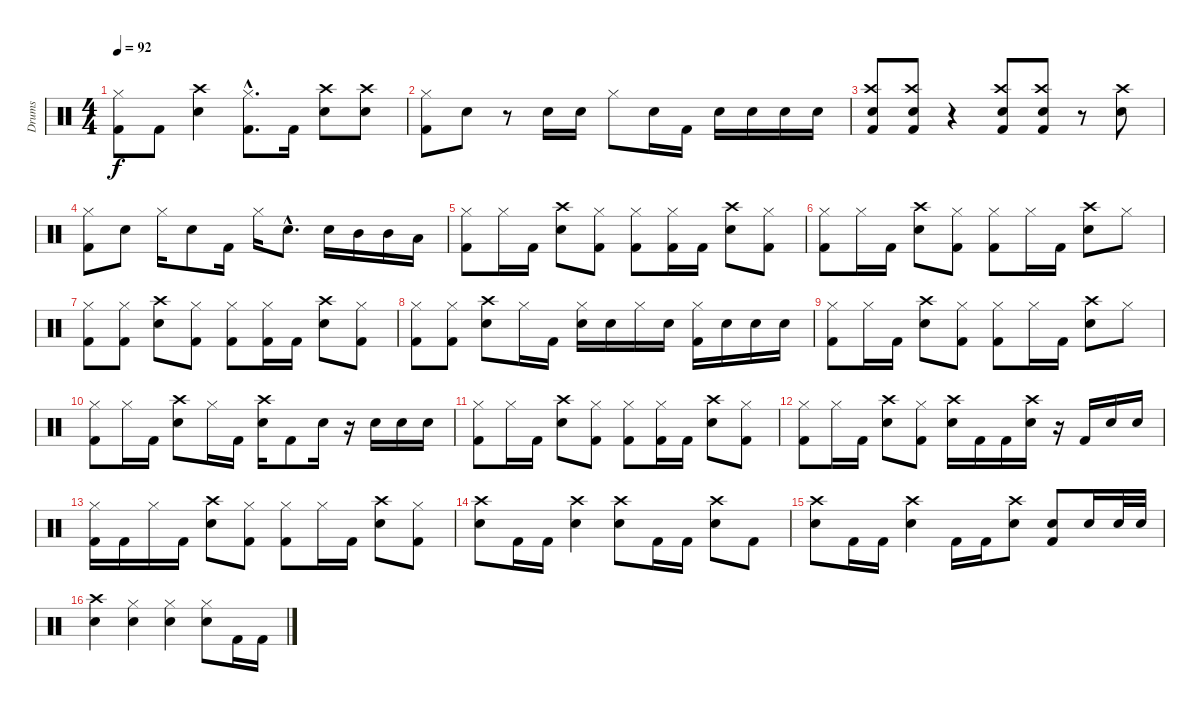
\track ("Drums" "Drums") {instrument percussion}
\staff {score}
\articulation defaults
\ts (4 4)
\tempo 92
\clef neutral
\ks c
("Hi-Hat (closed)" "Kick (hit) 2").8{dy f} "Kick (hit) 2".8 ("Crash high (hit)" "Electric Snare (hit)").4 ("Hi-Hat (closed)"{hac} "Kick (hit) 2"{hac}).8{d} "Kick (hit) 2".16 ("Crash high (hit)" "Electric Snare (hit)").8 ("Crash high (hit)" "Electric Snare (hit)").8 |
("Hi-Hat (closed)" "Kick (hit) 2").8 "Electric Snare (hit)".8 r.8 "Electric Snare (hit)".16 "Electric Snare (hit)".16 "Hi-Hat (closed)".8 "Electric Snare (hit)".16 "Kick (hit) 2".16 "Electric Snare (hit)".16 "Electric Snare (hit)".16 "Electric Snare (hit)".16 "Electric Snare (hit)".16 |
("Crash high (hit)" "Electric Snare (hit)" "Kick (hit) 2").8 ("Crash high (hit)" "Electric Snare (hit)" "Kick (hit) 2").8 r.4 ("Crash high (hit)" "Electric Snare (hit)" "Kick (hit) 2").8 ("Crash high (hit)" "Electric Snare (hit)" "Kick (hit) 2").8 r.8 ("Crash high (hit)" "Electric Snare (hit)").8 |
("Hi-Hat (closed)" "Kick (hit) 2").8 "Electric Snare (hit)".8 "Hi-Hat (closed)".16 "Electric Snare (hit)".8 "Kick (hit) 2".16 "Hi-Hat (closed)".16 "Electric Snare (hit)"{hac}.8{d} "Electric Snare (hit)".16 "Mid Tom (hit)".16 "Mid Tom (hit)".16 "Low Tom (hit)".16 |
("Hi-Hat (closed)" "Kick (hit) 2").8 "Hi-Hat (closed)".16 "Kick (hit) 2".16 ("Crash high (hit)" "Electric Snare (hit)").8 ("Hi-Hat (closed)" "Kick (hit) 2").8 ("Hi-Hat (closed)" "Kick (hit) 2").8 ("Hi-Hat (closed)" "Kick (hit) 2").16 "Kick (hit) 2".16 ("Crash high (hit)" "Electric Snare (hit)").8 ("Hi-Hat (closed)" "Kick (hit) 2").8 |
("Hi-Hat (closed)" "Kick (hit) 2").8 "Hi-Hat (closed)".16 "Kick (hit) 2".16 ("Crash high (hit)" "Electric Snare (hit)").8 ("Hi-Hat (closed)" "Kick (hit) 2").8 ("Hi-Hat (closed)" "Kick (hit) 2").8 "Hi-Hat (closed)".16 "Kick (hit) 2".16 ("Crash high (hit)" "Electric Snare (hit)").8 "Hi-Hat (closed)".8 |
("Hi-Hat (closed)" "Kick (hit) 2").8 ("Hi-Hat (closed)" "Kick (hit) 2").8 ("Crash high (hit)" "Electric Snare (hit)").8 ("Hi-Hat (closed)" "Kick (hit) 2").8 ("Hi-Hat (closed)" "Kick (hit) 2").8 ("Hi-Hat (closed)" "Kick (hit) 2").16 "Kick (hit) 2".16 ("Crash high (hit)" "Electric Snare (hit)").8 ("Hi-Hat (closed)" "Kick (hit) 2").8 |
("Hi-Hat (closed)" "Kick (hit) 2").8 ("Hi-Hat (closed)" "Kick (hit) 2").8 ("Crash high (hit)" "Electric Snare (hit)").8 "Hi-Hat (closed)".16 "Kick (hit) 2".16 ("Hi-Hat (closed)" "Electric Snare (hit)").16 "Electric Snare (hit)".16 "Hi-Hat (closed)".16 "Electric Snare (hit)".16 ("Hi-Hat (closed)" "Kick (hit) 2").16 "Electric Snare (hit)".16 "Electric Snare (hit)".16 "Electric Snare (hit)".16 |
("Hi-Hat (closed)" "Kick (hit) 2").8 "Hi-Hat (closed)".16 "Kick (hit) 2".16 ("Crash high (hit)" "Electric Snare (hit)").8 ("Hi-Hat (closed)" "Kick (hit) 2").8 ("Hi-Hat (closed)" "Kick (hit) 2").8 "Hi-Hat (closed)".16 "Kick (hit) 2".16 ("Crash high (hit)" "Electric Snare (hit)").8 "Hi-Hat (closed)".8 |
("Hi-Hat (closed)" "Kick (hit) 2").8 "Hi-Hat (closed)".16 "Kick (hit) 2".16 ("Crash high (hit)" "Electric Snare (hit)").8 "Hi-Hat (closed)".16 "Kick (hit) 2".16 ("Crash high (hit)" "Electric Snare (hit)").16 "Kick (hit) 2".8 "Electric Snare (hit)".16 r.16 "Electric Snare (hit)".16 "Electric Snare (hit)".16 "Electric Snare (hit)".16 |
("Hi-Hat (closed)" "Kick (hit) 2").8 "Hi-Hat (closed)".16 "Kick (hit) 2".16 ("Crash high (hit)" "Electric Snare (hit)").8 ("Hi-Hat (closed)" "Kick (hit) 2").8 ("Hi-Hat (closed)" "Kick (hit) 2").8 ("Hi-Hat (closed)" "Kick (hit) 2").16 "Kick (hit) 2".16 ("Crash high (hit)" "Electric Snare (hit)").8 ("Hi-Hat (closed)" "Kick (hit) 2").8 |
("Hi-Hat (closed)" "Kick (hit) 2").8 "Hi-Hat (closed)".16 "Kick (hit) 2".16 ("Crash high (hit)" "Electric Snare (hit)").8 ("Hi-Hat (closed)" "Kick (hit) 2").8 ("Crash high (hit)" "Electric Snare (hit)").16 "Kick (hit) 2".16 "Kick (hit) 2".16 ("Crash high (hit)" "Electric Snare (hit)").16 r.16 "Kick (hit) 2".16 "Electric Snare (hit)".16 "Electric Snare (hit)".16 |
("Hi-Hat (closed)" "Kick (hit) 2").16 "Kick (hit) 2".16 "Hi-Hat (closed)".16 "Kick (hit) 2".16 ("Crash high (hit)" "Electric Snare (hit)").8 ("Hi-Hat (closed)" "Kick (hit) 2").8 ("Hi-Hat (closed)" "Kick (hit) 2").8 "Hi-Hat (closed)".16 "Kick (hit) 2".16 ("Crash high (hit)" "Electric Snare (hit)").8 ("Hi-Hat (closed)" "Kick (hit) 2").8 |
("Crash high (hit)" "Electric Snare (hit)").8 "Kick (hit) 2".16 "Kick (hit) 2".16 ("Crash high (hit)" "Electric Snare (hit)").4 ("Crash high (hit)" "Electric Snare (hit)").8 "Kick (hit) 2".16 "Kick (hit) 2".16 ("Crash high (hit)" "Electric Snare (hit)").8 "Kick (hit) 2".8 |
("Crash high (hit)" "Electric Snare (hit)").8 "Kick (hit) 2".16 "Kick (hit) 2".16 ("Crash high (hit)" "Electric Snare (hit)").4 "Kick (hit) 2".16 "Kick (hit) 2".16 ("Crash high (hit)" "Electric Snare (hit)").8 ("Electric Snare (hit)" "Kick (hit) 2").8 "Electric Snare (hit)".16 "Electric Snare (hit)".32 "Electric Snare (hit)".32 |
("Crash high (hit)" "Electric Snare (hit)").4 ("Hi-Hat (closed)" "Electric Snare (hit)").4 ("Hi-Hat (closed)" "Electric Snare (hit)").4 ("Hi-Hat (closed)" "Electric Snare (hit)").8 "Kick (hit) 2".16 "Kick (hit) 2".16
